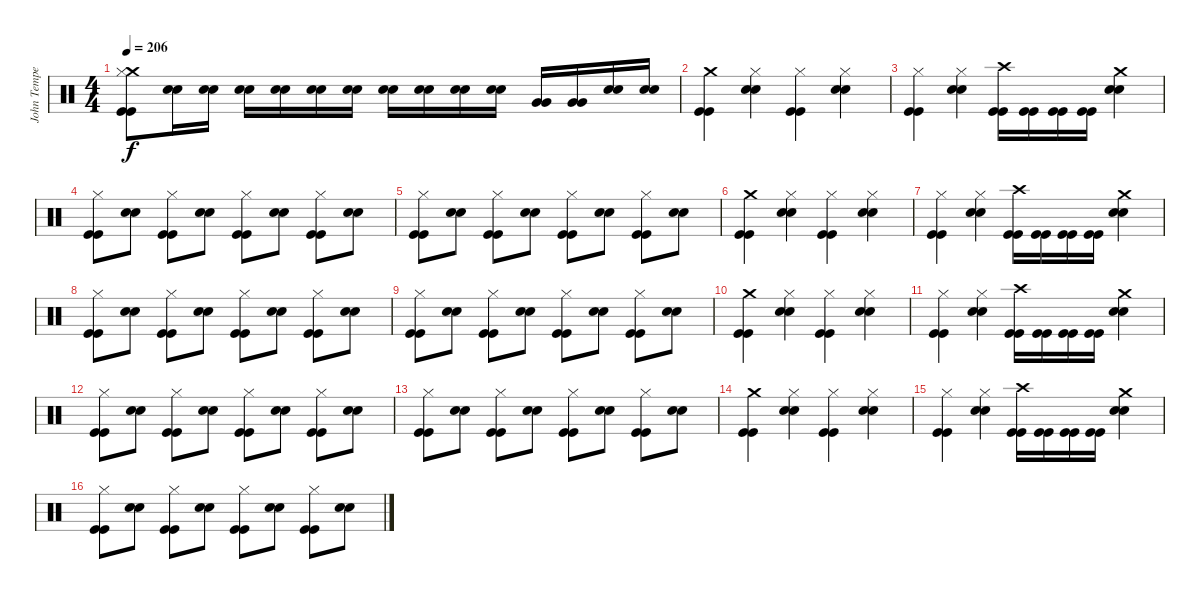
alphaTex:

\track ("John Tempesta" "John Tempe") {instrument percussion}
\staff {score}
\articulation defaults
\ts (4 4)
\tempo 206
\clef neutral
\ks c
("Crash medium (hit)" "Hi-Hat (closed)" "Kick (hit)" "Kick (hit)").8{dy f} ("Snare (hit) 2" "Snare (hit) 2").16 ("Snare (hit) 2" "Snare (hit) 2").16 ("Snare (hit) 2" "Snare (hit) 2").16 ("Snare (hit) 2" "Snare (hit) 2").16 ("Snare (hit) 2" "Snare (hit) 2").16 ("Snare (hit) 2" "Snare (hit) 2").16 ("Snare (hit) 2" "Snare (hit) 2").16 ("Snare (hit) 2" "Snare (hit) 2").16 ("Snare (hit) 2" "Snare (hit) 2").16 ("Snare (hit) 2" "Snare (hit) 2").16 ("Very Low Tom (hit)" "Very Low Tom (hit)").16 ("Very Low Tom (hit)" "Very Low Tom (hit)").16 ("Snare (hit) 2" "Snare (hit) 2").16 ("Snare (hit) 2" "Snare (hit) 2").16 |
("Crash medium (hit)" "Kick (hit)" "Kick (hit)").4 ("Snare (hit) 2" "Snare (hit) 2" "Hi-Hat (closed)").4 ("Hi-Hat (closed)" "Kick (hit)" "Kick (hit)").4 ("Snare (hit) 2" "Snare (hit) 2" "Hi-Hat (closed)").4 |
("Hi-Hat (closed)" "Kick (hit)" "Kick (hit)").4 ("Snare (hit) 2" "Snare (hit) 2" "Hi-Hat (closed)").4 ("Crash high (hit)" "Kick (hit)" "Kick (hit)").16 ("Kick (hit)" "Kick (hit)").16 ("Kick (hit)" "Kick (hit)").16 ("Kick (hit)" "Kick (hit)").16 ("Crash medium (hit)" "Snare (hit) 2" "Snare (hit) 2").4 |
("Hi-Hat (closed)" "Kick (hit)" "Kick (hit)").8 ("Snare (hit) 2" "Snare (hit) 2").8 ("Hi-Hat (closed)" "Kick (hit)" "Kick (hit)").8 ("Snare (hit) 2" "Snare (hit) 2").8 ("Hi-Hat (closed)" "Kick (hit)" "Kick (hit)").8 ("Snare (hit) 2" "Snare (hit) 2").8 ("Hi-Hat (closed)" "Kick (hit)" "Kick (hit)").8 ("Snare (hit) 2" "Snare (hit) 2").8 |
("Hi-Hat (closed)" "Kick (hit)" "Kick (hit)").8 ("Snare (hit) 2" "Snare (hit) 2").8 ("Hi-Hat (closed)" "Kick (hit)" "Kick (hit)").8 ("Snare (hit) 2" "Snare (hit) 2").8 ("Hi-Hat (closed)" "Kick (hit)" "Kick (hit)").8 ("Snare (hit) 2" "Snare (hit) 2").8 ("Hi-Hat (closed)" "Kick (hit)" "Kick (hit)").8 ("Snare (hit) 2" "Snare (hit) 2").8 |
("Crash medium (hit)" "Kick (hit)" "Kick (hit)").4 ("Snare (hit) 2" "Snare (hit) 2" "Hi-Hat (closed)").4 ("Hi-Hat (closed)" "Kick (hit)" "Kick (hit)").4 ("Snare (hit) 2" "Snare (hit) 2" "Hi-Hat (closed)").4 |
("Hi-Hat (closed)" "Kick (hit)" "Kick (hit)").4 ("Snare (hit) 2" "Snare (hit) 2" "Hi-Hat (closed)").4 ("Crash high (hit)" "Kick (hit)" "Kick (hit)").16 ("Kick (hit)" "Kick (hit)").16 ("Kick (hit)" "Kick (hit)").16 ("Kick (hit)" "Kick (hit)").16 ("Crash medium (hit)" "Snare (hit) 2" "Snare (hit) 2").4 |
("Hi-Hat (closed)" "Kick (hit)" "Kick (hit)").8 ("Snare (hit) 2" "Snare (hit) 2").8 ("Hi-Hat (closed)" "Kick (hit)" "Kick (hit)").8 ("Snare (hit) 2" "Snare (hit) 2").8 ("Hi-Hat (closed)" "Kick (hit)" "Kick (hit)").8 ("Snare (hit) 2" "Snare (hit) 2").8 ("Hi-Hat (closed)" "Kick (hit)" "Kick (hit)").8 ("Snare (hit) 2" "Snare (hit) 2").8 |
("Hi-Hat (closed)" "Kick (hit)" "Kick (hit)").8 ("Snare (hit) 2" "Snare (hit) 2").8 ("Hi-Hat (closed)" "Kick (hit)" "Kick (hit)").8 ("Snare (hit) 2" "Snare (hit) 2").8 ("Hi-Hat (closed)" "Kick (hit)" "Kick (hit)").8 ("Snare (hit) 2" "Snare (hit) 2").8 ("Hi-Hat (closed)" "Kick (hit)" "Kick (hit)").8 ("Snare (hit) 2" "Snare (hit) 2").8 |
("Crash medium (hit)" "Kick (hit)" "Kick (hit)").4 ("Snare (hit) 2" "Snare (hit) 2" "Hi-Hat (closed)").4 ("Hi-Hat (closed)" "Kick (hit)" "Kick (hit)").4 ("Snare (hit) 2" "Snare (hit) 2" "Hi-Hat (closed)").4 |
("Hi-Hat (closed)" "Kick (hit)" "Kick (hit)").4 ("Snare (hit) 2" "Snare (hit) 2" "Hi-Hat (closed)").4 ("Crash high (hit)" "Kick (hit)" "Kick (hit)").16 ("Kick (hit)" "Kick (hit)").16 ("Kick (hit)" "Kick (hit)").16 ("Kick (hit)" "Kick (hit)").16 ("Crash medium (hit)" "Snare (hit) 2" "Snare (hit) 2").4 |
("Hi-Hat (closed)" "Kick (hit)" "Kick (hit)").8 ("Snare (hit) 2" "Snare (hit) 2").8 ("Hi-Hat (closed)" "Kick (hit)" "Kick (hit)").8 ("Snare (hit) 2" "Snare (hit) 2").8 ("Hi-Hat (closed)" "Kick (hit)" "Kick (hit)").8 ("Snare (hit) 2" "Snare (hit) 2").8 ("Hi-Hat (closed)" "Kick (hit)" "Kick (hit)").8 ("Snare (hit) 2" "Snare (hit) 2").8 |
("Hi-Hat (closed)" "Kick (hit)" "Kick (hit)").8 ("Snare (hit) 2" "Snare (hit) 2").8 ("Hi-Hat (closed)" "Kick (hit)" "Kick (hit)").8 ("Snare (hit) 2" "Snare (hit) 2").8 ("Hi-Hat (closed)" "Kick (hit)" "Kick (hit)").8 ("Snare (hit) 2" "Snare (hit) 2").8 ("Hi-Hat (closed)" "Kick (hit)" "Kick (hit)").8 ("Snare (hit) 2" "Snare (hit) 2").8 |
("Crash medium (hit)" "Kick (hit)" "Kick (hit)").4 ("Snare (hit) 2" "Snare (hit) 2" "Hi-Hat (closed)").4 ("Hi-Hat (closed)" "Kick (hit)" "Kick (hit)").4 ("Snare (hit) 2" "Snare (hit) 2" "Hi-Hat (closed)").4 |
("Hi-Hat (closed)" "Kick (hit)" "Kick (hit)").4 ("Snare (hit) 2" "Snare (hit) 2" "Hi-Hat (closed)").4 ("Crash high (hit)" "Kick (hit)" "Kick (hit)").16 ("Kick (hit)" "Kick (hit)").16 ("Kick (hit)" "Kick (hit)").16 ("Kick (hit)" "Kick (hit)").16 ("Crash medium (hit)" "Snare (hit) 2" "Snare (hit) 2").4 |
("Hi-Hat (closed)" "Kick (hit)" "Kick (hit)").8 ("Snare (hit) 2" "Snare (hit) 2").8 ("Hi-Hat (closed)" "Kick (hit)" "Kick (hit)").8 ("Snare (hit) 2" "Snare (hit) 2").8 ("Hi-Hat (closed)" "Kick (hit)" "Kick (hit)").8 ("Snare (hit) 2" "Snare (hit) 2").8 ("Hi-Hat (closed)" "Kick (hit)" "Kick (hit)").8 ("Snare (hit) 2" "Snare (hit) 2").8
